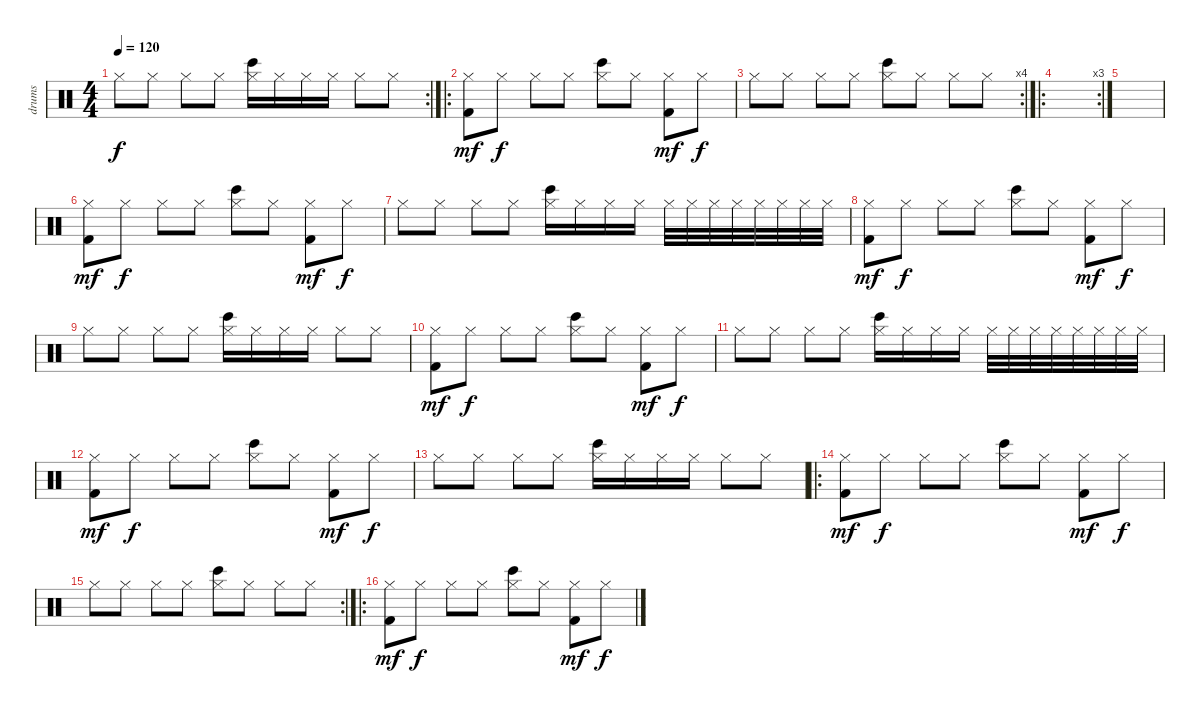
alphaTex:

\track ("drums" "drums") {instrument percussion}
\staff {score}
\articulation defaults
\rc 2
\ts (4 4)
\tempo 120
\clef neutral
\ks c "Hi-Hat (closed)".8{dy f} "Hi-Hat (closed)".8 "Hi-Hat (closed)".8 "Hi-Hat (closed)".8
("Hi-Hat (closed)" "Bongo High (hit)").16 "Hi-Hat (closed)".16 "Hi-Hat (closed)".16 "Hi-Hat (closed)".16 "Hi-Hat (closed)".8 "Hi-Hat (closed)".8 |
\ro
("Hi-Hat (closed)" "Kick (hit) 2").8{dy mf} "Hi-Hat (closed)".8{dy f} "Hi-Hat (closed)".8 "Hi-Hat (closed)".8 ("Hi-Hat (closed)" "Bongo High (hit)").8 "Hi-Hat (closed)".8 ("Hi-Hat (closed)" "Kick (hit) 2").8{dy mf} "Hi-Hat (closed)".8{dy f} |
\rc 4 "Hi-Hat (closed)".8 "Hi-Hat (closed)".8 "Hi-Hat (closed)".8 "Hi-Hat (closed)".8
("Hi-Hat (closed)" "Bongo High (hit)").8 "Hi-Hat (closed)".8 "Hi-Hat (closed)".8 "Hi-Hat (closed)".8 |
\ro
\rc 3
|
|
("Hi-Hat (closed)" "Kick (hit) 2").8{dy mf volume 13} "Hi-Hat (closed)".8{dy f} "Hi-Hat (closed)".8 "Hi-Hat (closed)".8 ("Hi-Hat (closed)" "Bongo High (hit)").8 "Hi-Hat (closed)".8 ("Hi-Hat (closed)" "Kick (hit) 2").8{dy mf} "Hi-Hat (closed)".8{dy f} |
"Hi-Hat (closed)".8 "Hi-Hat (closed)".8 "Hi-Hat (closed)".8 "Hi-Hat (closed)".8 ("Hi-Hat (closed)" "Bongo High (hit)").16 "Hi-Hat (closed)".16 "Hi-Hat (closed)".16 "Hi-Hat (closed)".16 "Hi-Hat (closed)".32 "Hi-Hat (closed)".32 "Hi-Hat (closed)".32 "Hi-Hat (closed)".32 "Hi-Hat (closed)".32 "Hi-Hat (closed)".32 "Hi-Hat (closed)".32 "Hi-Hat (closed)".32 |
("Hi-Hat (closed)" "Kick (hit) 2").8{dy mf} "Hi-Hat (closed)".8{dy f} "Hi-Hat (closed)".8 "Hi-Hat (closed)".8 ("Hi-Hat (closed)" "Bongo High (hit)").8 "Hi-Hat (closed)".8 ("Hi-Hat (closed)" "Kick (hit) 2").8{dy mf} "Hi-Hat (closed)".8{dy f} |
"Hi-Hat (closed)".8 "Hi-Hat (closed)".8 "Hi-Hat (closed)".8 "Hi-Hat (closed)".8 ("Hi-Hat (closed)" "Bongo High (hit)").16 "Hi-Hat (closed)".16 "Hi-Hat (closed)".16 "Hi-Hat (closed)".16 "Hi-Hat (closed)".8 "Hi-Hat (closed)".8 |
("Hi-Hat (closed)" "Kick (hit) 2").8{dy mf} "Hi-Hat (closed)".8{dy f} "Hi-Hat (closed)".8 "Hi-Hat (closed)".8 ("Hi-Hat (closed)" "Bongo High (hit)").8 "Hi-Hat (closed)".8 ("Hi-Hat (closed)" "Kick (hit) 2").8{dy mf} "Hi-Hat (closed)".8{dy f} |
"Hi-Hat (closed)".8 "Hi-Hat (closed)".8 "Hi-Hat (closed)".8 "Hi-Hat (closed)".8 ("Hi-Hat (closed)" "Bongo High (hit)").16 "Hi-Hat (closed)".16 "Hi-Hat (closed)".16 "Hi-Hat (closed)".16 "Hi-Hat (closed)".32 "Hi-Hat (closed)".32 "Hi-Hat (closed)".32 "Hi-Hat (closed)".32 "Hi-Hat (closed)".32 "Hi-Hat (closed)".32 "Hi-Hat (closed)".32 "Hi-Hat (closed)".32 |
("Hi-Hat (closed)" "Kick (hit) 2").8{dy mf} "Hi-Hat (closed)".8{dy f} "Hi-Hat (closed)".8 "Hi-Hat (closed)".8 ("Hi-Hat (closed)" "Bongo High (hit)").8 "Hi-Hat (closed)".8 ("Hi-Hat (closed)" "Kick (hit) 2").8{dy mf} "Hi-Hat (closed)".8{dy f} |
"Hi-Hat (closed)".8 "Hi-Hat (closed)".8 "Hi-Hat (closed)".8 "Hi-Hat (closed)".8 ("Hi-Hat (closed)" "Bongo High (hit)").16 "Hi-Hat (closed)".16 "Hi-Hat (closed)".16 "Hi-Hat (closed)".16 "Hi-Hat (closed)".8 "Hi-Hat (closed)".8 |
\ro
("Hi-Hat (closed)" "Kick (hit) 2").8{dy mf} "Hi-Hat (closed)".8{dy f} "Hi-Hat (closed)".8 "Hi-Hat (closed)".8 ("Hi-Hat (closed)" "Bongo High (hit)").8 "Hi-Hat (closed)".8 ("Hi-Hat (closed)" "Kick (hit) 2").8{dy mf} "Hi-Hat (closed)".8{dy f} |
\rc 2 "Hi-Hat (closed)".8 "Hi-Hat (closed)".8 "Hi-Hat (closed)".8 "Hi-Hat (closed)".8
("Hi-Hat (closed)" "Bongo High (hit)").8 "Hi-Hat (closed)".8 "Hi-Hat (closed)".8 "Hi-Hat (closed)".8 |
\ro
("Hi-Hat (closed)" "Kick (hit) 2").8{dy mf} "Hi-Hat (closed)".8{dy f} "Hi-Hat (closed)".8 "Hi-Hat (closed)".8 ("Hi-Hat (closed)" "Bongo High (hit)").8 "Hi-Hat (closed)".8 ("Hi-Hat (closed)" "Kick (hit) 2").8{dy mf} "Hi-Hat (closed)".8{dy f}
